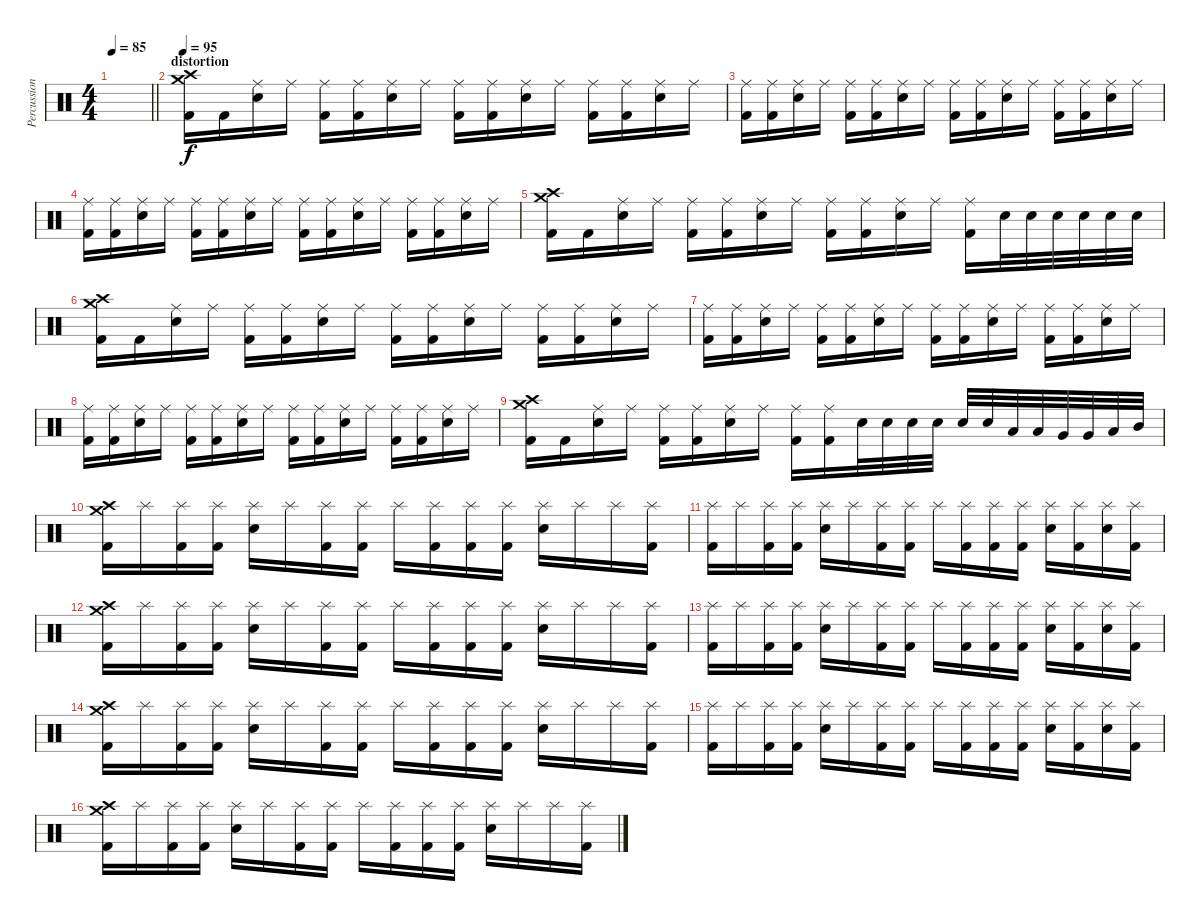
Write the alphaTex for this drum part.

\track ("Percussion" "Percussion") {instrument percussion}
\staff {score}
\articulation defaults
\ts (4 4)
\tempo 85
\clef neutral
\barLineRight lightlight
\ks c
|
\section ("" "distortion")
\tempo 95
("Crash medium (hit)" "Crash high (hit)" "Kick (hit) 2").16 "Kick (hit) 2".16 ("Ride (middle)" "Electric Snare (hit)").16 "Ride (middle)".16 ("Ride (middle)" "Kick (hit) 2").16 ("Ride (middle)" "Kick (hit) 2").16 ("Ride (middle)" "Electric Snare (hit)").16 "Ride (middle)".16 ("Ride (middle)" "Kick (hit) 2").16 ("Ride (middle)" "Kick (hit) 2").16 ("Ride (middle)" "Electric Snare (hit)").16 "Ride (middle)".16 ("Ride (middle)" "Kick (hit) 2").16 ("Ride (middle)" "Kick (hit) 2").16 ("Ride (middle)" "Electric Snare (hit)").16 "Ride (middle)".16 |
("Ride (middle)" "Kick (hit) 2").16 ("Ride (middle)" "Kick (hit) 2").16 ("Ride (middle)" "Electric Snare (hit)").16 "Ride (middle)".16 ("Ride (middle)" "Kick (hit) 2").16 ("Ride (middle)" "Kick (hit) 2").16 ("Ride (middle)" "Electric Snare (hit)").16 "Ride (middle)".16 ("Ride (middle)" "Kick (hit) 2").16 ("Ride (middle)" "Kick (hit) 2").16 ("Ride (middle)" "Electric Snare (hit)").16 "Ride (middle)".16 ("Ride (middle)" "Kick (hit) 2").16 ("Ride (middle)" "Kick (hit) 2").16 ("Ride (middle)" "Electric Snare (hit)").16 "Ride (middle)".16 |
("Ride (middle)" "Kick (hit) 2").16 ("Ride (middle)" "Kick (hit) 2").16 ("Ride (middle)" "Electric Snare (hit)").16 "Ride (middle)".16 ("Ride (middle)" "Kick (hit) 2").16 ("Ride (middle)" "Kick (hit) 2").16 ("Ride (middle)" "Electric Snare (hit)").16 "Ride (middle)".16 ("Ride (middle)" "Kick (hit) 2").16 ("Ride (middle)" "Kick (hit) 2").16 ("Ride (middle)" "Electric Snare (hit)").16 "Ride (middle)".16 ("Ride (middle)" "Kick (hit) 2").16 ("Ride (middle)" "Kick (hit) 2").16 ("Ride (middle)" "Electric Snare (hit)").16 "Ride (middle)".16 |
("Crash medium (hit)" "Crash high (hit)" "Kick (hit) 2").16 "Kick (hit) 2".16 ("Ride (middle)" "Electric Snare (hit)").16 "Ride (middle)".16 ("Ride (middle)" "Kick (hit) 2").16 ("Ride (middle)" "Kick (hit) 2").16 ("Ride (middle)" "Electric Snare (hit)").16 "Ride (middle)".16 ("Ride (middle)" "Kick (hit) 2").16 ("Ride (middle)" "Kick (hit) 2").16 ("Ride (middle)" "Electric Snare (hit)").16 "Ride (middle)".16 ("Ride (middle)" "Kick (hit) 2").16 "Electric Snare (hit)".32 "Electric Snare (hit)".32 "Electric Snare (hit)".32 "Electric Snare (hit)".32 "Electric Snare (hit)".32 "Electric Snare (hit)".32 |
("Crash medium (hit)" "Crash high (hit)" "Kick (hit) 2").16 "Kick (hit) 2".16 ("Ride (middle)" "Electric Snare (hit)").16 "Ride (middle)".16 ("Ride (middle)" "Kick (hit) 2").16 ("Ride (middle)" "Kick (hit) 2").16 ("Ride (middle)" "Electric Snare (hit)").16 "Ride (middle)".16 ("Ride (middle)" "Kick (hit) 2").16 ("Ride (middle)" "Kick (hit) 2").16 ("Ride (middle)" "Electric Snare (hit)").16 "Ride (middle)".16 ("Ride (middle)" "Kick (hit) 2").16 ("Ride (middle)" "Kick (hit) 2").16 ("Ride (middle)" "Electric Snare (hit)").16 "Ride (middle)".16 |
("Ride (middle)" "Kick (hit) 2").16 ("Ride (middle)" "Kick (hit) 2").16 ("Ride (middle)" "Electric Snare (hit)").16 "Ride (middle)".16 ("Ride (middle)" "Kick (hit) 2").16 ("Ride (middle)" "Kick (hit) 2").16 ("Ride (middle)" "Electric Snare (hit)").16 "Ride (middle)".16 ("Ride (middle)" "Kick (hit) 2").16 ("Ride (middle)" "Kick (hit) 2").16 ("Ride (middle)" "Electric Snare (hit)").16 "Ride (middle)".16 ("Ride (middle)" "Kick (hit) 2").16 ("Ride (middle)" "Kick (hit) 2").16 ("Ride (middle)" "Electric Snare (hit)").16 "Ride (middle)".16 |
("Ride (middle)" "Kick (hit) 2").16 ("Ride (middle)" "Kick (hit) 2").16 ("Ride (middle)" "Electric Snare (hit)").16 "Ride (middle)".16 ("Ride (middle)" "Kick (hit) 2").16 ("Ride (middle)" "Kick (hit) 2").16 ("Ride (middle)" "Electric Snare (hit)").16 "Ride (middle)".16 ("Ride (middle)" "Kick (hit) 2").16 ("Ride (middle)" "Kick (hit) 2").16 ("Ride (middle)" "Electric Snare (hit)").16 "Ride (middle)".16 ("Ride (middle)" "Kick (hit) 2").16 ("Ride (middle)" "Kick (hit) 2").16 ("Ride (middle)" "Electric Snare (hit)").16 "Ride (middle)".16 |
("Crash medium (hit)" "Crash high (hit)" "Kick (hit) 2").16 "Kick (hit) 2".16 ("Ride (middle)" "Electric Snare (hit)").16 "Ride (middle)".16 ("Ride (middle)" "Kick (hit) 2").16 ("Ride (middle)" "Kick (hit) 2").16 ("Ride (middle)" "Electric Snare (hit)").16 "Ride (middle)".16 ("Ride (middle)" "Kick (hit) 2").16 ("Ride (middle)" "Kick (hit) 2").16 "Electric Snare (hit)".32 "Electric Snare (hit)".32 "Electric Snare (hit)".32 "Electric Snare (hit)".32 "Electric Snare (hit)".32 "Electric Snare (hit)".32 "Low Floor Tom (hit)".32 "Low Floor Tom (hit)".32 "Very Low Tom (hit)".32 "Very Low Tom (hit)".32 "Low Tom (hit)".32 "Mid Tom (hit)".32 |
("Crash medium (hit)" "Crash high (hit)" "Kick (hit) 2").16 "Splash (hit)".16 ("Splash (hit)" "Kick (hit) 2").16 ("Splash (hit)" "Kick (hit) 2").16 ("Splash (hit)" "Electric Snare (hit)").16 "Splash (hit)".16 ("Splash (hit)" "Kick (hit) 2").16 ("Splash (hit)" "Kick (hit) 2").16 "Splash (hit)".16 ("Splash (hit)" "Kick (hit) 2").16 ("Splash (hit)" "Kick (hit) 2").16 ("Splash (hit)" "Kick (hit) 2").16 ("Splash (hit)" "Electric Snare (hit)").16 "Splash (hit)".16 "Splash (hit)".16 ("Splash (hit)" "Kick (hit) 2").16 |
("Splash (hit)" "Kick (hit) 2").16 "Splash (hit)".16 ("Splash (hit)" "Kick (hit) 2").16 ("Splash (hit)" "Kick (hit) 2").16 ("Splash (hit)" "Electric Snare (hit)").16 "Splash (hit)".16 ("Splash (hit)" "Kick (hit) 2").16 ("Splash (hit)" "Kick (hit) 2").16 "Splash (hit)".16 ("Splash (hit)" "Kick (hit) 2").16 ("Splash (hit)" "Kick (hit) 2").16 ("Splash (hit)" "Kick (hit) 2").16 ("Splash (hit)" "Electric Snare (hit)").16 ("Splash (hit)" "Kick (hit) 2").16 ("Splash (hit)" "Electric Snare (hit)").16 ("Splash (hit)" "Kick (hit) 2").16 |
("Crash medium (hit)" "Crash high (hit)" "Kick (hit) 2").16 "Splash (hit)".16 ("Splash (hit)" "Kick (hit) 2").16 ("Splash (hit)" "Kick (hit) 2").16 ("Splash (hit)" "Electric Snare (hit)").16 "Splash (hit)".16 ("Splash (hit)" "Kick (hit) 2").16 ("Splash (hit)" "Kick (hit) 2").16 "Splash (hit)".16 ("Splash (hit)" "Kick (hit) 2").16 ("Splash (hit)" "Kick (hit) 2").16 ("Splash (hit)" "Kick (hit) 2").16 ("Splash (hit)" "Electric Snare (hit)").16 "Splash (hit)".16 "Splash (hit)".16 ("Splash (hit)" "Kick (hit) 2").16 |
("Splash (hit)" "Kick (hit) 2").16 "Splash (hit)".16 ("Splash (hit)" "Kick (hit) 2").16 ("Splash (hit)" "Kick (hit) 2").16 ("Splash (hit)" "Electric Snare (hit)").16 "Splash (hit)".16 ("Splash (hit)" "Kick (hit) 2").16 ("Splash (hit)" "Kick (hit) 2").16 "Splash (hit)".16 ("Splash (hit)" "Kick (hit) 2").16 ("Splash (hit)" "Kick (hit) 2").16 ("Splash (hit)" "Kick (hit) 2").16 ("Splash (hit)" "Electric Snare (hit)").16 ("Splash (hit)" "Kick (hit) 2").16 ("Splash (hit)" "Electric Snare (hit)").16 ("Splash (hit)" "Kick (hit) 2").16 |
("Crash medium (hit)" "Crash high (hit)" "Kick (hit) 2").16 "Splash (hit)".16 ("Splash (hit)" "Kick (hit) 2").16 ("Splash (hit)" "Kick (hit) 2").16 ("Splash (hit)" "Electric Snare (hit)").16 "Splash (hit)".16 ("Splash (hit)" "Kick (hit) 2").16 ("Splash (hit)" "Kick (hit) 2").16 "Splash (hit)".16 ("Splash (hit)" "Kick (hit) 2").16 ("Splash (hit)" "Kick (hit) 2").16 ("Splash (hit)" "Kick (hit) 2").16 ("Splash (hit)" "Electric Snare (hit)").16 "Splash (hit)".16 "Splash (hit)".16 ("Splash (hit)" "Kick (hit) 2").16 |
("Splash (hit)" "Kick (hit) 2").16 "Splash (hit)".16 ("Splash (hit)" "Kick (hit) 2").16 ("Splash (hit)" "Kick (hit) 2").16 ("Splash (hit)" "Electric Snare (hit)").16 "Splash (hit)".16 ("Splash (hit)" "Kick (hit) 2").16 ("Splash (hit)" "Kick (hit) 2").16 "Splash (hit)".16 ("Splash (hit)" "Kick (hit) 2").16 ("Splash (hit)" "Kick (hit) 2").16 ("Splash (hit)" "Kick (hit) 2").16 ("Splash (hit)" "Electric Snare (hit)").16 ("Splash (hit)" "Kick (hit) 2").16 ("Splash (hit)" "Electric Snare (hit)").16 ("Splash (hit)" "Kick (hit) 2").16 |
("Crash medium (hit)" "Crash high (hit)" "Kick (hit) 2").16 "Splash (hit)".16 ("Splash (hit)" "Kick (hit) 2").16 ("Splash (hit)" "Kick (hit) 2").16 ("Splash (hit)" "Electric Snare (hit)").16 "Splash (hit)".16 ("Splash (hit)" "Kick (hit) 2").16 ("Splash (hit)" "Kick (hit) 2").16 "Splash (hit)".16 ("Splash (hit)" "Kick (hit) 2").16 ("Splash (hit)" "Kick (hit) 2").16 ("Splash (hit)" "Kick (hit) 2").16 ("Splash (hit)" "Electric Snare (hit)").16 "Splash (hit)".16 "Splash (hit)".16 ("Splash (hit)" "Kick (hit) 2").16
